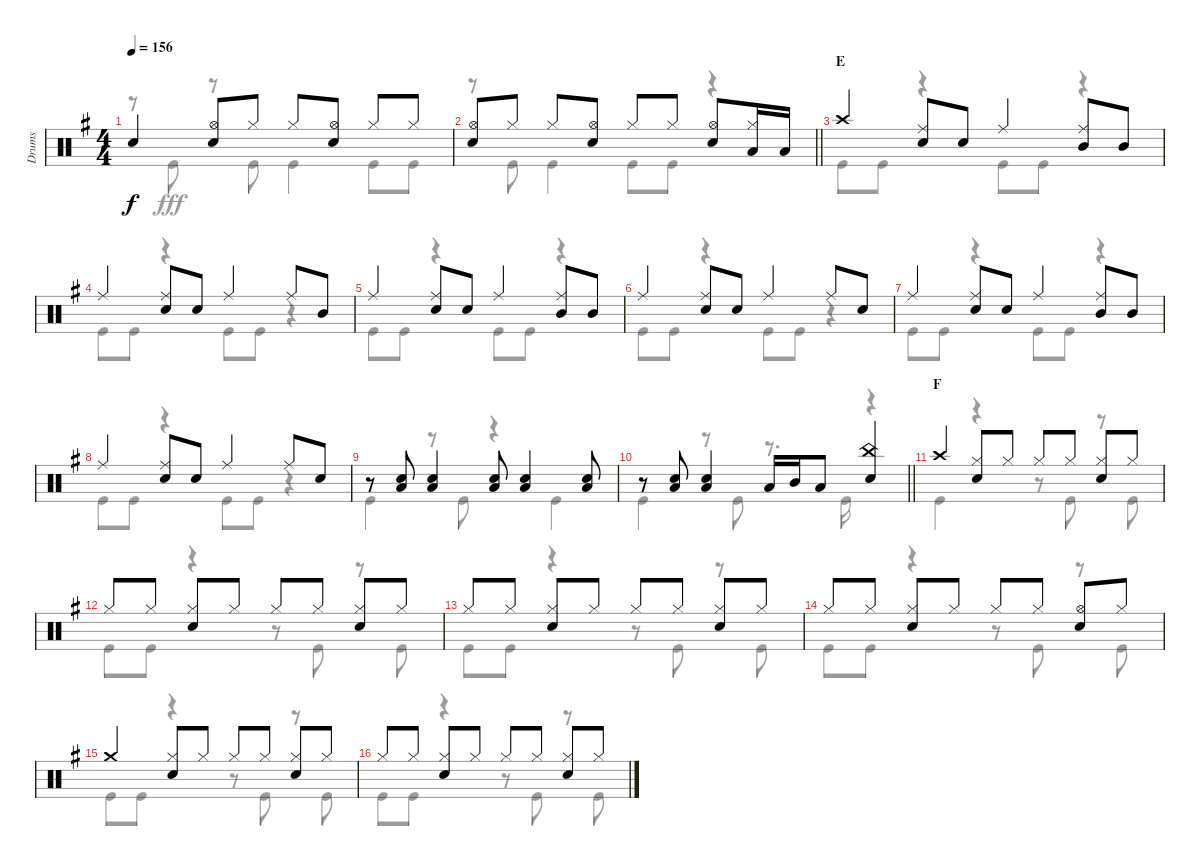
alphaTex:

\track ("Drums" "Drums") {instrument percussion}
\staff {score}
\articulation defaults
\voice
\ts (4 4)
\tempo 156
\clef neutral
\ks g "Snare (hit)"{t}.4{dy f}
("Hi-Hat (open)" "Snare (hit) 2").8 "Hi-Hat (closed)".8 "Hi-Hat (closed)".8 ("Hi-Hat (open)" "Snare (hit) 2").8 "Hi-Hat (closed)".8 "Hi-Hat (closed)".8 |
\barLineRight lightlight
("Hi-Hat (open)" "Snare (hit) 2").8 "Hi-Hat (closed)".8 "Hi-Hat (closed)".8 ("Hi-Hat (open)" "Snare (hit) 2").8 "Hi-Hat (closed)".8 "Hi-Hat (closed)".8 ("Hi-Hat (open)" "Snare (hit) 2").8 ("Hi-Hat (closed)" "Low Tom (hit)").16 "Low Tom (hit)".16 |
\section ("" "E")
"Crash high (hit)".4 ("Ride (middle)" "Snare (hit) 2").8 "Snare (hit) 2".8 "Ride (middle)".4 ("Ride (middle)" "Mid Tom (hit)").8 "Mid Tom (hit)".8 |
"Ride (middle)".4 ("Ride (middle)" "Snare (hit) 2").8 "Snare (hit) 2".8 "Ride (middle)".4 "Ride (middle)".8 "Mid Tom (hit)".8 |
"Ride (middle)".4 ("Ride (middle)" "Snare (hit) 2").8 "Snare (hit) 2".8 "Ride (middle)".4 ("Ride (middle)" "Mid Tom (hit)").8 "Mid Tom (hit)".8 |
"Ride (middle)".4 ("Ride (middle)" "Snare (hit) 2").8 "Snare (hit) 2".8 "Ride (middle)".4 "Ride (middle)".8 "Snare (hit) 2".8 |
"Ride (middle)".4 ("Ride (middle)" "Snare (hit) 2").8 "Snare (hit) 2".8 "Ride (middle)".4 ("Mid Tom (hit)" "Ride (middle)").8 "Mid Tom (hit)".8 |
"Ride (middle)".4 ("Ride (middle)" "Snare (hit) 2").8 "Snare (hit) 2".8 "Ride (middle)".4 "Ride (middle)".8 "Snare (hit) 2".8 |
r.8 ("Snare (hit) 2" "Low Tom (hit)").8 ("Snare (hit) 2" "Low Tom (hit)").4 ("Snare (hit) 2" "Low Tom (hit)").8 ("Snare (hit) 2" "Low Tom (hit)").4 ("Snare (hit) 2" "Low Tom (hit)").8 |
\barLineRight lightlight
r.8 ("Snare (hit) 2" "Low Tom (hit)").8 ("Snare (hit) 2" "Low Tom (hit)").4 "Low Tom (hit)".16 "Mid Tom (hit)".16 "Low Tom (hit)".8 ("Snare (hit) 2" "China (hit)").4 |
\section ("" "F")
"Crash high (hit)".4 ("Hi-Hat (closed)" "Snare (hit) 2").8 "Hi-Hat (closed)".8 "Hi-Hat (closed)".8 "Hi-Hat (closed)".8 ("Hi-Hat (closed)" "Snare (hit) 2").8 "Hi-Hat (closed)".8 |
"Hi-Hat (closed)".8 "Hi-Hat (closed)".8 ("Hi-Hat (closed)" "Snare (hit) 2").8 "Hi-Hat (closed)".8 "Hi-Hat (closed)".8 "Hi-Hat (closed)".8 ("Hi-Hat (closed)" "Snare (hit) 2").8 "Hi-Hat (closed)".8 |
"Hi-Hat (closed)".8 "Hi-Hat (closed)".8 ("Hi-Hat (closed)" "Snare (hit) 2").8 "Hi-Hat (closed)".8 "Hi-Hat (closed)".8 "Hi-Hat (closed)".8 ("Hi-Hat (closed)" "Snare (hit) 2").8 "Hi-Hat (closed)".8 |
"Hi-Hat (closed)".8 "Hi-Hat (closed)".8 ("Hi-Hat (closed)" "Snare (hit) 2").8 "Hi-Hat (closed)".8 "Hi-Hat (closed)".8 "Hi-Hat (closed)".8 ("Hi-Hat (open)" "Snare (hit) 2").8 "Hi-Hat (closed)".8 |
"Crash medium (hit)".4 ("Hi-Hat (closed)" "Snare (hit) 2").8 "Hi-Hat (closed)".8 "Hi-Hat (closed)".8 "Hi-Hat (closed)".8 ("Hi-Hat (closed)" "Snare (hit) 2").8 "Hi-Hat (closed)".8 |
"Hi-Hat (closed)".8 "Hi-Hat (closed)".8 ("Hi-Hat (closed)" "Snare (hit) 2").8 "Hi-Hat (closed)".8 "Hi-Hat (closed)".8 "Hi-Hat (closed)".8 ("Hi-Hat (closed)" "Snare (hit) 2").8 "Hi-Hat (closed)".8
\voice
\clef neutral
\ottava regular
\simile none
\ks g
r.8{dy fff} "Kick (hit)".8 r.8 "Kick (hit)".8 "Kick (hit)".4 "Kick (hit)".8 "Kick (hit)".8 |
\barLineRight lightlight
r.8 "Kick (hit)".8 "Kick (hit)".4 "Kick (hit)".8 "Kick (hit)".8 r.4 |
"Kick (hit)".8 "Kick (hit)".8 r.4 "Kick (hit)".8 "Kick (hit)".8 r.4 |
"Kick (hit)".8 "Kick (hit)".8 r.4 "Kick (hit)".8 "Kick (hit)".8 r.4 |
"Kick (hit)".8 "Kick (hit)".8 r.4 "Kick (hit)".8 "Kick (hit)".8 r.4 |
"Kick (hit)".8 "Kick (hit)".8 r.4 "Kick (hit)".8 "Kick (hit)".8 r.4 |
"Kick (hit)".8 "Kick (hit)".8 r.4 "Kick (hit)".8 "Kick (hit)".8 r.4 |
"Kick (hit)".8 "Kick (hit)".8 r.4 "Kick (hit)".8 "Kick (hit)".8 r.4 |
"Kick (hit)".4 r.8 "Kick (hit)".8 r.4 "Kick (hit)".4 |
\barLineRight lightlight "Kick (hit)".4
r.8 "Kick (hit)".8 r.8{d} "Kick (hit)".16 r.4 |
"Kick (hit)".4 r.4 r.8 "Kick (hit)".8 r.8 "Kick (hit)".8 |
"Kick (hit)".8 "Kick (hit)".8 r.4 r.8 "Kick (hit)".8 r.8 "Kick (hit)".8 |
"Kick (hit)".8 "Kick (hit)".8 r.4 r.8 "Kick (hit)".8 r.8 "Kick (hit)".8 |
"Kick (hit)".8 "Kick (hit)".8 r.4 r.8 "Kick (hit)".8 r.8 "Kick (hit)".8 |
"Kick (hit)".8 "Kick (hit)".8 r.4 r.8 "Kick (hit)".8 r.8 "Kick (hit)".8 |
"Kick (hit)".8 "Kick (hit)".8 r.4 r.8 "Kick (hit)".8 r.8 "Kick (hit)".8
